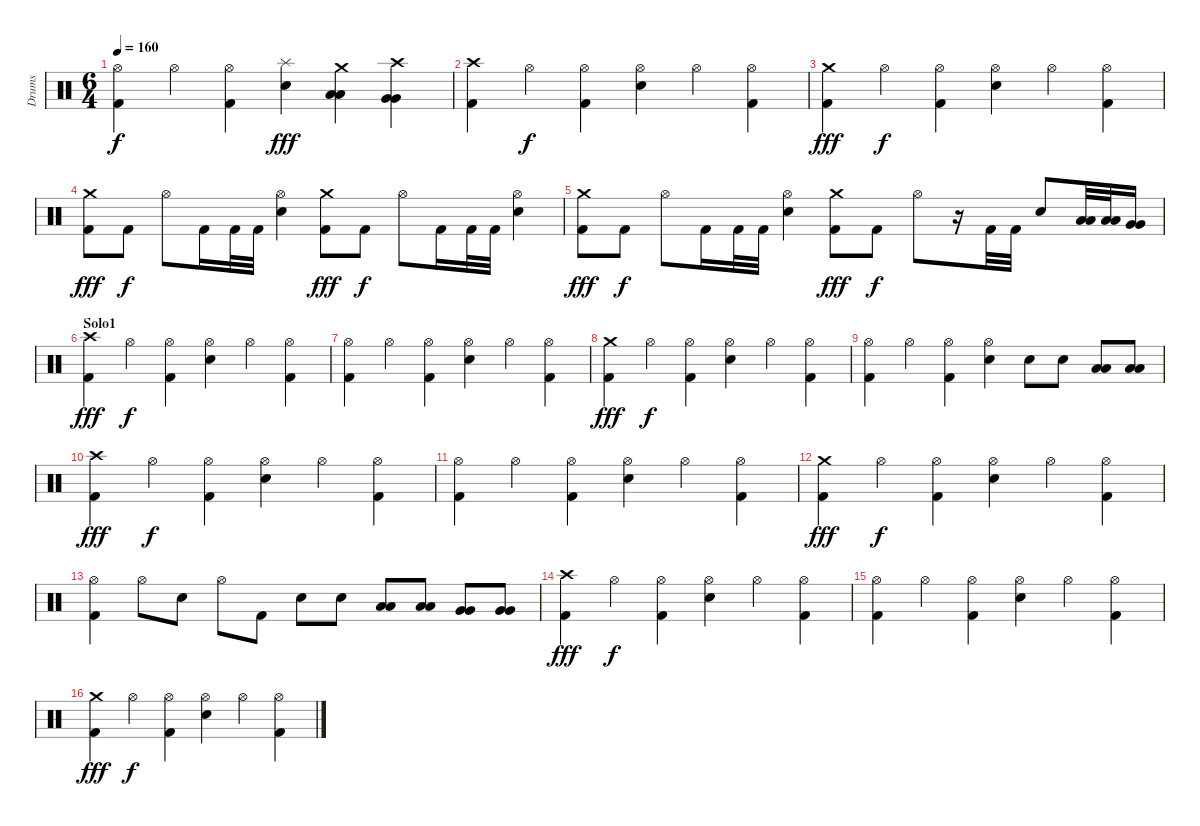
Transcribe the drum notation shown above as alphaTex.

\track ("Drums" "Drums") {instrument percussion}
\staff {score}
\articulation defaults
\ts (6 4)
\tempo 160
\clef neutral
\ks c
("Kick (hit) 2" "Hi-Hat (open)").4{dy f} "Hi-Hat (open)".4 ("Kick (hit) 2" "Hi-Hat (open)").4 ("Electric Snare (hit)" "Splash (hit)").4{dy fff} ("Low Tom (hit)" "Low Tom (hit)" "Crash medium (hit)").4 ("Very Low Tom (hit)" "Very Low Tom (hit)" "Crash high (hit)").4 |
("Kick (hit) 2" "Crash high (hit)").4 "Hi-Hat (open)".4{dy f} ("Kick (hit) 2" "Hi-Hat (open)").4 ("Electric Snare (hit)" "Hi-Hat (open)").4 "Hi-Hat (open)".4 ("Kick (hit) 2" "Hi-Hat (open)").4 |
("Kick (hit) 2" "Crash medium (hit)").4{dy fff} "Hi-Hat (open)".4{dy f} ("Kick (hit) 2" "Hi-Hat (open)").4 ("Electric Snare (hit)" "Hi-Hat (open)").4 "Hi-Hat (open)".4 ("Kick (hit) 2" "Hi-Hat (open)").4 |
("Kick (hit) 2" "Crash medium (hit)").8{dy fff} "Kick (hit) 2".8{dy f} "Hi-Hat (open)".8 "Kick (hit) 2".16 "Kick (hit) 2".32 "Kick (hit) 2".32 ("Electric Snare (hit)" "Hi-Hat (open)").4 ("Kick (hit) 2" "Crash medium (hit)").8{dy fff} "Kick (hit) 2".8{dy f} "Hi-Hat (open)".8 "Kick (hit) 2".16 "Kick (hit) 2".32 "Kick (hit) 2".32 ("Electric Snare (hit)" "Hi-Hat (open)").4 |
("Kick (hit) 2" "Crash medium (hit)").8{dy fff} "Kick (hit) 2".8{dy f} "Hi-Hat (open)".8 "Kick (hit) 2".16 "Kick (hit) 2".32 "Kick (hit) 2".32 ("Electric Snare (hit)" "Hi-Hat (open)").4 ("Kick (hit) 2" "Crash medium (hit)").8{dy fff} "Kick (hit) 2".8{dy f} "Hi-Hat (open)".8 r.16 "Kick (hit) 2".32 "Kick (hit) 2".32 "Electric Snare (hit)".8 ("Low Tom (hit)" "Low Tom (hit)").32 ("Low Tom (hit)" "Low Tom (hit)").32 ("Very Low Tom (hit)" "Very Low Tom (hit)").16 |
\section ("" "Solo1")
("Kick (hit) 2" "Crash high (hit)").4{dy fff} "Hi-Hat (open)".4{dy f} ("Kick (hit) 2" "Hi-Hat (open)").4 ("Electric Snare (hit)" "Hi-Hat (open)").4 "Hi-Hat (open)".4 ("Kick (hit) 2" "Hi-Hat (open)").4 |
("Kick (hit) 2" "Hi-Hat (open)").4 "Hi-Hat (open)".4 ("Kick (hit) 2" "Hi-Hat (open)").4 ("Electric Snare (hit)" "Hi-Hat (open)").4 "Hi-Hat (open)".4 ("Kick (hit) 2" "Hi-Hat (open)").4 |
("Kick (hit) 2" "Crash medium (hit)").4{dy fff} "Hi-Hat (open)".4{dy f} ("Kick (hit) 2" "Hi-Hat (open)").4 ("Electric Snare (hit)" "Hi-Hat (open)").4 "Hi-Hat (open)".4 ("Kick (hit) 2" "Hi-Hat (open)").4 |
("Kick (hit) 2" "Hi-Hat (open)").4 "Hi-Hat (open)".4 ("Kick (hit) 2" "Hi-Hat (open)").4 ("Electric Snare (hit)" "Hi-Hat (open)").4 "Electric Snare (hit)".8 "Electric Snare (hit)".8 ("Low Tom (hit)" "Low Tom (hit)").8 ("Low Tom (hit)" "Low Tom (hit)").8 |
("Kick (hit) 2" "Crash high (hit)").4{dy fff} "Hi-Hat (open)".4{dy f} ("Kick (hit) 2" "Hi-Hat (open)").4 ("Electric Snare (hit)" "Hi-Hat (open)").4 "Hi-Hat (open)".4 ("Kick (hit) 2" "Hi-Hat (open)").4 |
("Kick (hit) 2" "Hi-Hat (open)").4 "Hi-Hat (open)".4 ("Kick (hit) 2" "Hi-Hat (open)").4 ("Electric Snare (hit)" "Hi-Hat (open)").4 "Hi-Hat (open)".4 ("Kick (hit) 2" "Hi-Hat (open)").4 |
("Kick (hit) 2" "Crash medium (hit)").4{dy fff} "Hi-Hat (open)".4{dy f} ("Kick (hit) 2" "Hi-Hat (open)").4 ("Electric Snare (hit)" "Hi-Hat (open)").4 "Hi-Hat (open)".4 ("Kick (hit) 2" "Hi-Hat (open)").4 |
("Kick (hit) 2" "Hi-Hat (open)").4 "Hi-Hat (open)".8 "Electric Snare (hit)".8 "Hi-Hat (open)".8 "Kick (hit) 2".8 "Electric Snare (hit)".8 "Electric Snare (hit)".8 ("Low Tom (hit)" "Low Tom (hit)").8 ("Low Tom (hit)" "Low Tom (hit)").8 ("Very Low Tom (hit)" "Very Low Tom (hit)").8 ("Very Low Tom (hit)" "Very Low Tom (hit)").8 |
("Kick (hit) 2" "Crash high (hit)").4{dy fff} "Hi-Hat (open)".4{dy f} ("Kick (hit) 2" "Hi-Hat (open)").4 ("Electric Snare (hit)" "Hi-Hat (open)").4 "Hi-Hat (open)".4 ("Kick (hit) 2" "Hi-Hat (open)").4 |
("Kick (hit) 2" "Hi-Hat (open)").4 "Hi-Hat (open)".4 ("Kick (hit) 2" "Hi-Hat (open)").4 ("Electric Snare (hit)" "Hi-Hat (open)").4 "Hi-Hat (open)".4 ("Kick (hit) 2" "Hi-Hat (open)").4 |
("Kick (hit) 2" "Crash medium (hit)").4{dy fff} "Hi-Hat (open)".4{dy f} ("Kick (hit) 2" "Hi-Hat (open)").4 ("Electric Snare (hit)" "Hi-Hat (open)").4 "Hi-Hat (open)".4 ("Kick (hit) 2" "Hi-Hat (open)").4
